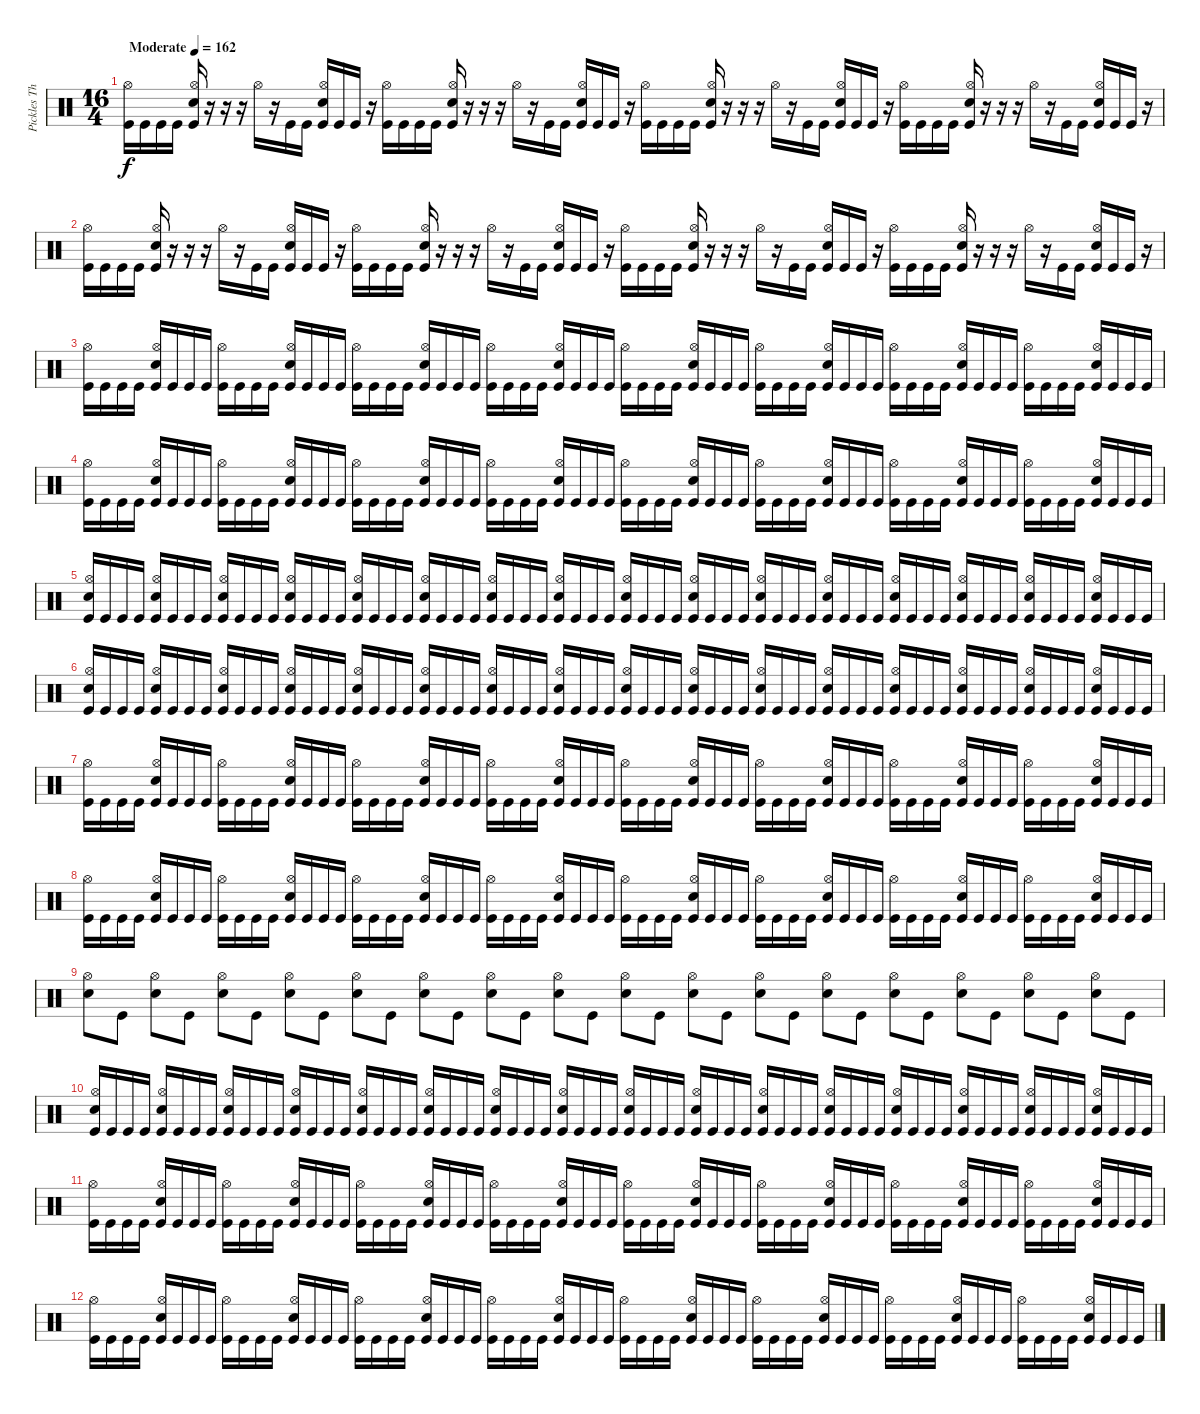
\track ("Pickles The Drummer" "Pickles Th") {instrument percussion}
\staff {score}
\articulation defaults
\ts (16 4)
\tempo (162 "Moderate")
\clef neutral
\ks c
("Kick (hit)" "Hi-Hat (open)").16{dy f} "Kick (hit)".16 "Kick (hit)".16 "Kick (hit)".16 ("Kick (hit)" "Electric Snare (hit)" "Hi-Hat (open)").16 r.16 r.16 r.16 "Hi-Hat (open)".16 r.16 "Kick (hit)".16 "Kick (hit)".16 ("Kick (hit)" "Electric Snare (hit)" "Hi-Hat (open)").16 "Kick (hit)".16 "Kick (hit)".16 r.16 ("Kick (hit)" "Hi-Hat (open)").16 "Kick (hit)".16 "Kick (hit)".16 "Kick (hit)".16 ("Kick (hit)" "Electric Snare (hit)" "Hi-Hat (open)").16 r.16 r.16 r.16 "Hi-Hat (open)".16 r.16 "Kick (hit)".16 "Kick (hit)".16 ("Kick (hit)" "Electric Snare (hit)" "Hi-Hat (open)").16 "Kick (hit)".16 "Kick (hit)".16 r.16 ("Kick (hit)" "Hi-Hat (open)").16 "Kick (hit)".16 "Kick (hit)".16 "Kick (hit)".16 ("Kick (hit)" "Electric Snare (hit)" "Hi-Hat (open)").16 r.16 r.16 r.16 "Hi-Hat (open)".16 r.16 "Kick (hit)".16 "Kick (hit)".16 ("Kick (hit)" "Electric Snare (hit)" "Hi-Hat (open)").16 "Kick (hit)".16 "Kick (hit)".16 r.16 ("Kick (hit)" "Hi-Hat (open)").16 "Kick (hit)".16 "Kick (hit)".16 "Kick (hit)".16 ("Kick (hit)" "Electric Snare (hit)" "Hi-Hat (open)").16 r.16 r.16 r.16 "Hi-Hat (open)".16 r.16 "Kick (hit)".16 "Kick (hit)".16 ("Kick (hit)" "Electric Snare (hit)" "Hi-Hat (open)").16 "Kick (hit)".16 "Kick (hit)".16 r.16 |
("Kick (hit)" "Hi-Hat (open)").16 "Kick (hit)".16 "Kick (hit)".16 "Kick (hit)".16 ("Kick (hit)" "Electric Snare (hit)" "Hi-Hat (open)").16 r.16 r.16 r.16 "Hi-Hat (open)".16 r.16 "Kick (hit)".16 "Kick (hit)".16 ("Kick (hit)" "Electric Snare (hit)" "Hi-Hat (open)").16 "Kick (hit)".16 "Kick (hit)".16 r.16 ("Kick (hit)" "Hi-Hat (open)").16 "Kick (hit)".16 "Kick (hit)".16 "Kick (hit)".16 ("Kick (hit)" "Electric Snare (hit)" "Hi-Hat (open)").16 r.16 r.16 r.16 "Hi-Hat (open)".16 r.16 "Kick (hit)".16 "Kick (hit)".16 ("Kick (hit)" "Electric Snare (hit)" "Hi-Hat (open)").16 "Kick (hit)".16 "Kick (hit)".16 r.16 ("Kick (hit)" "Hi-Hat (open)").16 "Kick (hit)".16 "Kick (hit)".16 "Kick (hit)".16 ("Kick (hit)" "Electric Snare (hit)" "Hi-Hat (open)").16 r.16 r.16 r.16 "Hi-Hat (open)".16 r.16 "Kick (hit)".16 "Kick (hit)".16 ("Kick (hit)" "Electric Snare (hit)" "Hi-Hat (open)").16 "Kick (hit)".16 "Kick (hit)".16 r.16 ("Kick (hit)" "Hi-Hat (open)").16 "Kick (hit)".16 "Kick (hit)".16 "Kick (hit)".16 ("Kick (hit)" "Electric Snare (hit)" "Hi-Hat (open)").16 r.16 r.16 r.16 "Hi-Hat (open)".16 r.16 "Kick (hit)".16 "Kick (hit)".16 ("Kick (hit)" "Electric Snare (hit)" "Hi-Hat (open)").16 "Kick (hit)".16 "Kick (hit)".16 r.16 |
("Kick (hit)" "Hi-Hat (open)").16 "Kick (hit)".16 "Kick (hit)".16 "Kick (hit)".16 ("Kick (hit)" "Electric Snare (hit)" "Hi-Hat (open)").16 "Kick (hit)".16 "Kick (hit)".16 "Kick (hit)".16 ("Kick (hit)" "Hi-Hat (open)").16 "Kick (hit)".16 "Kick (hit)".16 "Kick (hit)".16 ("Kick (hit)" "Electric Snare (hit)" "Hi-Hat (open)").16 "Kick (hit)".16 "Kick (hit)".16 "Kick (hit)".16 ("Kick (hit)" "Hi-Hat (open)").16 "Kick (hit)".16 "Kick (hit)".16 "Kick (hit)".16 ("Kick (hit)" "Electric Snare (hit)" "Hi-Hat (open)").16 "Kick (hit)".16 "Kick (hit)".16 "Kick (hit)".16 ("Kick (hit)" "Hi-Hat (open)").16 "Kick (hit)".16 "Kick (hit)".16 "Kick (hit)".16 ("Kick (hit)" "Electric Snare (hit)" "Hi-Hat (open)").16 "Kick (hit)".16 "Kick (hit)".16 "Kick (hit)".16 ("Kick (hit)" "Hi-Hat (open)").16 "Kick (hit)".16 "Kick (hit)".16 "Kick (hit)".16 ("Kick (hit)" "Electric Snare (hit)" "Hi-Hat (open)").16 "Kick (hit)".16 "Kick (hit)".16 "Kick (hit)".16 ("Kick (hit)" "Hi-Hat (open)").16 "Kick (hit)".16 "Kick (hit)".16 "Kick (hit)".16 ("Kick (hit)" "Electric Snare (hit)" "Hi-Hat (open)").16 "Kick (hit)".16 "Kick (hit)".16 "Kick (hit)".16 ("Kick (hit)" "Hi-Hat (open)").16 "Kick (hit)".16 "Kick (hit)".16 "Kick (hit)".16 ("Kick (hit)" "Electric Snare (hit)" "Hi-Hat (open)").16 "Kick (hit)".16 "Kick (hit)".16 "Kick (hit)".16 ("Kick (hit)" "Hi-Hat (open)").16 "Kick (hit)".16 "Kick (hit)".16 "Kick (hit)".16 ("Kick (hit)" "Electric Snare (hit)" "Hi-Hat (open)").16 "Kick (hit)".16 "Kick (hit)".16 "Kick (hit)".16 |
("Kick (hit)" "Hi-Hat (open)").16 "Kick (hit)".16 "Kick (hit)".16 "Kick (hit)".16 ("Kick (hit)" "Electric Snare (hit)" "Hi-Hat (open)").16 "Kick (hit)".16 "Kick (hit)".16 "Kick (hit)".16 ("Kick (hit)" "Hi-Hat (open)").16 "Kick (hit)".16 "Kick (hit)".16 "Kick (hit)".16 ("Kick (hit)" "Electric Snare (hit)" "Hi-Hat (open)").16 "Kick (hit)".16 "Kick (hit)".16 "Kick (hit)".16 ("Kick (hit)" "Hi-Hat (open)").16 "Kick (hit)".16 "Kick (hit)".16 "Kick (hit)".16 ("Kick (hit)" "Electric Snare (hit)" "Hi-Hat (open)").16 "Kick (hit)".16 "Kick (hit)".16 "Kick (hit)".16 ("Kick (hit)" "Hi-Hat (open)").16 "Kick (hit)".16 "Kick (hit)".16 "Kick (hit)".16 ("Kick (hit)" "Electric Snare (hit)" "Hi-Hat (open)").16 "Kick (hit)".16 "Kick (hit)".16 "Kick (hit)".16 ("Kick (hit)" "Hi-Hat (open)").16 "Kick (hit)".16 "Kick (hit)".16 "Kick (hit)".16 ("Kick (hit)" "Electric Snare (hit)" "Hi-Hat (open)").16 "Kick (hit)".16 "Kick (hit)".16 "Kick (hit)".16 ("Kick (hit)" "Hi-Hat (open)").16 "Kick (hit)".16 "Kick (hit)".16 "Kick (hit)".16 ("Kick (hit)" "Electric Snare (hit)" "Hi-Hat (open)").16 "Kick (hit)".16 "Kick (hit)".16 "Kick (hit)".16 ("Kick (hit)" "Hi-Hat (open)").16 "Kick (hit)".16 "Kick (hit)".16 "Kick (hit)".16 ("Kick (hit)" "Electric Snare (hit)" "Hi-Hat (open)").16 "Kick (hit)".16 "Kick (hit)".16 "Kick (hit)".16 ("Kick (hit)" "Hi-Hat (open)").16 "Kick (hit)".16 "Kick (hit)".16 "Kick (hit)".16 ("Kick (hit)" "Electric Snare (hit)" "Hi-Hat (open)").16 "Kick (hit)".16 "Kick (hit)".16 "Kick (hit)".16 |
("Kick (hit)" "Electric Snare (hit)" "Hi-Hat (open)").16 "Kick (hit)".16 "Kick (hit)".16 "Kick (hit)".16 ("Kick (hit)" "Electric Snare (hit)" "Hi-Hat (open)").16 "Kick (hit)".16 "Kick (hit)".16 "Kick (hit)".16 ("Kick (hit)" "Electric Snare (hit)" "Hi-Hat (open)").16 "Kick (hit)".16 "Kick (hit)".16 "Kick (hit)".16 ("Kick (hit)" "Electric Snare (hit)" "Hi-Hat (open)").16 "Kick (hit)".16 "Kick (hit)".16 "Kick (hit)".16 ("Kick (hit)" "Electric Snare (hit)" "Hi-Hat (open)").16 "Kick (hit)".16 "Kick (hit)".16 "Kick (hit)".16 ("Kick (hit)" "Electric Snare (hit)" "Hi-Hat (open)").16 "Kick (hit)".16 "Kick (hit)".16 "Kick (hit)".16 ("Kick (hit)" "Electric Snare (hit)" "Hi-Hat (open)").16 "Kick (hit)".16 "Kick (hit)".16 "Kick (hit)".16 ("Kick (hit)" "Electric Snare (hit)" "Hi-Hat (open)").16 "Kick (hit)".16 "Kick (hit)".16 "Kick (hit)".16 ("Kick (hit)" "Electric Snare (hit)" "Hi-Hat (open)").16 "Kick (hit)".16 "Kick (hit)".16 "Kick (hit)".16 ("Kick (hit)" "Electric Snare (hit)" "Hi-Hat (open)").16 "Kick (hit)".16 "Kick (hit)".16 "Kick (hit)".16 ("Kick (hit)" "Electric Snare (hit)" "Hi-Hat (open)").16 "Kick (hit)".16 "Kick (hit)".16 "Kick (hit)".16 ("Kick (hit)" "Electric Snare (hit)" "Hi-Hat (open)").16 "Kick (hit)".16 "Kick (hit)".16 "Kick (hit)".16 ("Kick (hit)" "Electric Snare (hit)" "Hi-Hat (open)").16 "Kick (hit)".16 "Kick (hit)".16 "Kick (hit)".16 ("Kick (hit)" "Electric Snare (hit)" "Hi-Hat (open)").16 "Kick (hit)".16 "Kick (hit)".16 "Kick (hit)".16 ("Kick (hit)" "Electric Snare (hit)" "Hi-Hat (open)").16 "Kick (hit)".16 "Kick (hit)".16 "Kick (hit)".16 ("Kick (hit)" "Electric Snare (hit)" "Hi-Hat (open)").16 "Kick (hit)".16 "Kick (hit)".16 "Kick (hit)".16 |
("Kick (hit)" "Electric Snare (hit)" "Hi-Hat (open)").16 "Kick (hit)".16 "Kick (hit)".16 "Kick (hit)".16 ("Kick (hit)" "Electric Snare (hit)" "Hi-Hat (open)").16 "Kick (hit)".16 "Kick (hit)".16 "Kick (hit)".16 ("Kick (hit)" "Electric Snare (hit)" "Hi-Hat (open)").16 "Kick (hit)".16 "Kick (hit)".16 "Kick (hit)".16 ("Kick (hit)" "Electric Snare (hit)" "Hi-Hat (open)").16 "Kick (hit)".16 "Kick (hit)".16 "Kick (hit)".16 ("Kick (hit)" "Electric Snare (hit)" "Hi-Hat (open)").16 "Kick (hit)".16 "Kick (hit)".16 "Kick (hit)".16 ("Kick (hit)" "Electric Snare (hit)" "Hi-Hat (open)").16 "Kick (hit)".16 "Kick (hit)".16 "Kick (hit)".16 ("Kick (hit)" "Electric Snare (hit)" "Hi-Hat (open)").16 "Kick (hit)".16 "Kick (hit)".16 "Kick (hit)".16 ("Kick (hit)" "Electric Snare (hit)" "Hi-Hat (open)").16 "Kick (hit)".16 "Kick (hit)".16 "Kick (hit)".16 ("Kick (hit)" "Electric Snare (hit)" "Hi-Hat (open)").16 "Kick (hit)".16 "Kick (hit)".16 "Kick (hit)".16 ("Kick (hit)" "Electric Snare (hit)" "Hi-Hat (open)").16 "Kick (hit)".16 "Kick (hit)".16 "Kick (hit)".16 ("Kick (hit)" "Electric Snare (hit)" "Hi-Hat (open)").16 "Kick (hit)".16 "Kick (hit)".16 "Kick (hit)".16 ("Kick (hit)" "Electric Snare (hit)" "Hi-Hat (open)").16 "Kick (hit)".16 "Kick (hit)".16 "Kick (hit)".16 ("Kick (hit)" "Electric Snare (hit)" "Hi-Hat (open)").16 "Kick (hit)".16 "Kick (hit)".16 "Kick (hit)".16 ("Kick (hit)" "Electric Snare (hit)" "Hi-Hat (open)").16 "Kick (hit)".16 "Kick (hit)".16 "Kick (hit)".16 ("Kick (hit)" "Electric Snare (hit)" "Hi-Hat (open)").16 "Kick (hit)".16 "Kick (hit)".16 "Kick (hit)".16 ("Kick (hit)" "Electric Snare (hit)" "Hi-Hat (open)").16 "Kick (hit)".16 "Kick (hit)".16 "Kick (hit)".16 |
("Kick (hit)" "Hi-Hat (open)").16 "Kick (hit)".16 "Kick (hit)".16 "Kick (hit)".16 ("Kick (hit)" "Electric Snare (hit)" "Hi-Hat (open)").16 "Kick (hit)".16 "Kick (hit)".16 "Kick (hit)".16 ("Kick (hit)" "Hi-Hat (open)").16 "Kick (hit)".16 "Kick (hit)".16 "Kick (hit)".16 ("Kick (hit)" "Electric Snare (hit)" "Hi-Hat (open)").16 "Kick (hit)".16 "Kick (hit)".16 "Kick (hit)".16 ("Kick (hit)" "Hi-Hat (open)").16 "Kick (hit)".16 "Kick (hit)".16 "Kick (hit)".16 ("Kick (hit)" "Electric Snare (hit)" "Hi-Hat (open)").16 "Kick (hit)".16 "Kick (hit)".16 "Kick (hit)".16 ("Kick (hit)" "Hi-Hat (open)").16 "Kick (hit)".16 "Kick (hit)".16 "Kick (hit)".16 ("Kick (hit)" "Electric Snare (hit)" "Hi-Hat (open)").16 "Kick (hit)".16 "Kick (hit)".16 "Kick (hit)".16 ("Kick (hit)" "Hi-Hat (open)").16 "Kick (hit)".16 "Kick (hit)".16 "Kick (hit)".16 ("Kick (hit)" "Electric Snare (hit)" "Hi-Hat (open)").16 "Kick (hit)".16 "Kick (hit)".16 "Kick (hit)".16 ("Kick (hit)" "Hi-Hat (open)").16 "Kick (hit)".16 "Kick (hit)".16 "Kick (hit)".16 ("Kick (hit)" "Electric Snare (hit)" "Hi-Hat (open)").16 "Kick (hit)".16 "Kick (hit)".16 "Kick (hit)".16 ("Kick (hit)" "Hi-Hat (open)").16 "Kick (hit)".16 "Kick (hit)".16 "Kick (hit)".16 ("Kick (hit)" "Electric Snare (hit)" "Hi-Hat (open)").16 "Kick (hit)".16 "Kick (hit)".16 "Kick (hit)".16 ("Kick (hit)" "Hi-Hat (open)").16 "Kick (hit)".16 "Kick (hit)".16 "Kick (hit)".16 ("Kick (hit)" "Electric Snare (hit)" "Hi-Hat (open)").16 "Kick (hit)".16 "Kick (hit)".16 "Kick (hit)".16 |
("Kick (hit)" "Hi-Hat (open)").16 "Kick (hit)".16 "Kick (hit)".16 "Kick (hit)".16 ("Kick (hit)" "Electric Snare (hit)" "Hi-Hat (open)").16 "Kick (hit)".16 "Kick (hit)".16 "Kick (hit)".16 ("Kick (hit)" "Hi-Hat (open)").16 "Kick (hit)".16 "Kick (hit)".16 "Kick (hit)".16 ("Kick (hit)" "Electric Snare (hit)" "Hi-Hat (open)").16 "Kick (hit)".16 "Kick (hit)".16 "Kick (hit)".16 ("Kick (hit)" "Hi-Hat (open)").16 "Kick (hit)".16 "Kick (hit)".16 "Kick (hit)".16 ("Kick (hit)" "Electric Snare (hit)" "Hi-Hat (open)").16 "Kick (hit)".16 "Kick (hit)".16 "Kick (hit)".16 ("Kick (hit)" "Hi-Hat (open)").16 "Kick (hit)".16 "Kick (hit)".16 "Kick (hit)".16 ("Kick (hit)" "Electric Snare (hit)" "Hi-Hat (open)").16 "Kick (hit)".16 "Kick (hit)".16 "Kick (hit)".16 ("Kick (hit)" "Hi-Hat (open)").16 "Kick (hit)".16 "Kick (hit)".16 "Kick (hit)".16 ("Kick (hit)" "Electric Snare (hit)" "Hi-Hat (open)").16 "Kick (hit)".16 "Kick (hit)".16 "Kick (hit)".16 ("Kick (hit)" "Hi-Hat (open)").16 "Kick (hit)".16 "Kick (hit)".16 "Kick (hit)".16 ("Kick (hit)" "Electric Snare (hit)" "Hi-Hat (open)").16 "Kick (hit)".16 "Kick (hit)".16 "Kick (hit)".16 ("Kick (hit)" "Hi-Hat (open)").16 "Kick (hit)".16 "Kick (hit)".16 "Kick (hit)".16 ("Kick (hit)" "Electric Snare (hit)" "Hi-Hat (open)").16 "Kick (hit)".16 "Kick (hit)".16 "Kick (hit)".16 ("Kick (hit)" "Hi-Hat (open)").16 "Kick (hit)".16 "Kick (hit)".16 "Kick (hit)".16 ("Kick (hit)" "Electric Snare (hit)" "Hi-Hat (open)").16 "Kick (hit)".16 "Kick (hit)".16 "Kick (hit)".16 |
("Electric Snare (hit)" "Hi-Hat (open)").8 "Kick (hit)".8 ("Electric Snare (hit)" "Hi-Hat (open)").8 "Kick (hit)".8 ("Electric Snare (hit)" "Hi-Hat (open)").8 "Kick (hit)".8 ("Electric Snare (hit)" "Hi-Hat (open)").8 "Kick (hit)".8 ("Electric Snare (hit)" "Hi-Hat (open)").8 "Kick (hit)".8 ("Electric Snare (hit)" "Hi-Hat (open)").8 "Kick (hit)".8 ("Electric Snare (hit)" "Hi-Hat (open)").8 "Kick (hit)".8 ("Electric Snare (hit)" "Hi-Hat (open)").8 "Kick (hit)".8 ("Electric Snare (hit)" "Hi-Hat (open)").8 "Kick (hit)".8 ("Electric Snare (hit)" "Hi-Hat (open)").8 "Kick (hit)".8 ("Electric Snare (hit)" "Hi-Hat (open)").8 "Kick (hit)".8 ("Electric Snare (hit)" "Hi-Hat (open)").8 "Kick (hit)".8 ("Electric Snare (hit)" "Hi-Hat (open)").8 "Kick (hit)".8 ("Electric Snare (hit)" "Hi-Hat (open)").8 "Kick (hit)".8 ("Electric Snare (hit)" "Hi-Hat (open)").8 "Kick (hit)".8 ("Electric Snare (hit)" "Hi-Hat (open)").8 "Kick (hit)".8 |
("Kick (hit)" "Electric Snare (hit)" "Hi-Hat (open)").16 "Kick (hit)".16 "Kick (hit)".16 "Kick (hit)".16 ("Kick (hit)" "Electric Snare (hit)" "Hi-Hat (open)").16 "Kick (hit)".16 "Kick (hit)".16 "Kick (hit)".16 ("Kick (hit)" "Electric Snare (hit)" "Hi-Hat (open)").16 "Kick (hit)".16 "Kick (hit)".16 "Kick (hit)".16 ("Kick (hit)" "Electric Snare (hit)" "Hi-Hat (open)").16 "Kick (hit)".16 "Kick (hit)".16 "Kick (hit)".16 ("Kick (hit)" "Electric Snare (hit)" "Hi-Hat (open)").16 "Kick (hit)".16 "Kick (hit)".16 "Kick (hit)".16 ("Kick (hit)" "Electric Snare (hit)" "Hi-Hat (open)").16 "Kick (hit)".16 "Kick (hit)".16 "Kick (hit)".16 ("Kick (hit)" "Electric Snare (hit)" "Hi-Hat (open)").16 "Kick (hit)".16 "Kick (hit)".16 "Kick (hit)".16 ("Kick (hit)" "Electric Snare (hit)" "Hi-Hat (open)").16 "Kick (hit)".16 "Kick (hit)".16 "Kick (hit)".16 ("Kick (hit)" "Electric Snare (hit)" "Hi-Hat (open)").16 "Kick (hit)".16 "Kick (hit)".16 "Kick (hit)".16 ("Kick (hit)" "Electric Snare (hit)" "Hi-Hat (open)").16 "Kick (hit)".16 "Kick (hit)".16 "Kick (hit)".16 ("Kick (hit)" "Electric Snare (hit)" "Hi-Hat (open)").16 "Kick (hit)".16 "Kick (hit)".16 "Kick (hit)".16 ("Kick (hit)" "Electric Snare (hit)" "Hi-Hat (open)").16 "Kick (hit)".16 "Kick (hit)".16 "Kick (hit)".16 ("Kick (hit)" "Electric Snare (hit)" "Hi-Hat (open)").16 "Kick (hit)".16 "Kick (hit)".16 "Kick (hit)".16 ("Kick (hit)" "Electric Snare (hit)" "Hi-Hat (open)").16 "Kick (hit)".16 "Kick (hit)".16 "Kick (hit)".16 ("Kick (hit)" "Electric Snare (hit)" "Hi-Hat (open)").16 "Kick (hit)".16 "Kick (hit)".16 "Kick (hit)".16 ("Kick (hit)" "Electric Snare (hit)" "Hi-Hat (open)").16 "Kick (hit)".16 "Kick (hit)".16 "Kick (hit)".16 |
("Kick (hit)" "Hi-Hat (open)").16{volume 3} "Kick (hit)".16 "Kick (hit)".16 "Kick (hit)".16 ("Kick (hit)" "Electric Snare (hit)" "Hi-Hat (open)").16 "Kick (hit)".16 "Kick (hit)".16 "Kick (hit)".16 ("Kick (hit)" "Hi-Hat (open)").16 "Kick (hit)".16 "Kick (hit)".16 "Kick (hit)".16 ("Kick (hit)" "Electric Snare (hit)" "Hi-Hat (open)").16 "Kick (hit)".16 "Kick (hit)".16 "Kick (hit)".16 ("Kick (hit)" "Hi-Hat (open)").16 "Kick (hit)".16 "Kick (hit)".16 "Kick (hit)".16 ("Kick (hit)" "Electric Snare (hit)" "Hi-Hat (open)").16 "Kick (hit)".16 "Kick (hit)".16 "Kick (hit)".16 ("Kick (hit)" "Hi-Hat (open)").16 "Kick (hit)".16 "Kick (hit)".16 "Kick (hit)".16 ("Kick (hit)" "Electric Snare (hit)" "Hi-Hat (open)").16 "Kick (hit)".16 "Kick (hit)".16 "Kick (hit)".16 ("Kick (hit)" "Hi-Hat (open)").16 "Kick (hit)".16 "Kick (hit)".16 "Kick (hit)".16 ("Kick (hit)" "Electric Snare (hit)" "Hi-Hat (open)").16 "Kick (hit)".16 "Kick (hit)".16 "Kick (hit)".16 ("Kick (hit)" "Hi-Hat (open)").16 "Kick (hit)".16 "Kick (hit)".16 "Kick (hit)".16 ("Kick (hit)" "Electric Snare (hit)" "Hi-Hat (open)").16 "Kick (hit)".16 "Kick (hit)".16 "Kick (hit)".16 ("Kick (hit)" "Hi-Hat (open)").16 "Kick (hit)".16 "Kick (hit)".16 "Kick (hit)".16 ("Kick (hit)" "Electric Snare (hit)" "Hi-Hat (open)").16 "Kick (hit)".16 "Kick (hit)".16 "Kick (hit)".16 ("Kick (hit)" "Hi-Hat (open)").16 "Kick (hit)".16 "Kick (hit)".16 "Kick (hit)".16 ("Kick (hit)" "Electric Snare (hit)" "Hi-Hat (open)").16 "Kick (hit)".16 "Kick (hit)".16 "Kick (hit)".16 |
("Kick (hit)" "Hi-Hat (open)").16{volume 2} "Kick (hit)".16 "Kick (hit)".16 "Kick (hit)".16 ("Kick (hit)" "Electric Snare (hit)" "Hi-Hat (open)").16 "Kick (hit)".16 "Kick (hit)".16 "Kick (hit)".16 ("Kick (hit)" "Hi-Hat (open)").16 "Kick (hit)".16 "Kick (hit)".16 "Kick (hit)".16 ("Kick (hit)" "Electric Snare (hit)" "Hi-Hat (open)").16 "Kick (hit)".16 "Kick (hit)".16 "Kick (hit)".16 ("Kick (hit)" "Hi-Hat (open)").16 "Kick (hit)".16 "Kick (hit)".16 "Kick (hit)".16 ("Kick (hit)" "Electric Snare (hit)" "Hi-Hat (open)").16 "Kick (hit)".16 "Kick (hit)".16 "Kick (hit)".16 ("Kick (hit)" "Hi-Hat (open)").16 "Kick (hit)".16 "Kick (hit)".16 "Kick (hit)".16 ("Kick (hit)" "Electric Snare (hit)" "Hi-Hat (open)").16 "Kick (hit)".16 "Kick (hit)".16 "Kick (hit)".16 ("Kick (hit)" "Hi-Hat (open)").16 "Kick (hit)".16 "Kick (hit)".16 "Kick (hit)".16 ("Kick (hit)" "Electric Snare (hit)" "Hi-Hat (open)").16 "Kick (hit)".16 "Kick (hit)".16 "Kick (hit)".16 ("Kick (hit)" "Hi-Hat (open)").16 "Kick (hit)".16 "Kick (hit)".16 "Kick (hit)".16 ("Kick (hit)" "Electric Snare (hit)" "Hi-Hat (open)").16 "Kick (hit)".16 "Kick (hit)".16 "Kick (hit)".16 ("Kick (hit)" "Hi-Hat (open)").16 "Kick (hit)".16 "Kick (hit)".16 "Kick (hit)".16 ("Kick (hit)" "Electric Snare (hit)" "Hi-Hat (open)").16 "Kick (hit)".16 "Kick (hit)".16 "Kick (hit)".16 ("Kick (hit)" "Hi-Hat (open)").16 "Kick (hit)".16 "Kick (hit)".16 "Kick (hit)".16 ("Kick (hit)" "Electric Snare (hit)" "Hi-Hat (open)").16 "Kick (hit)".16 "Kick (hit)".16 "Kick (hit)".16
